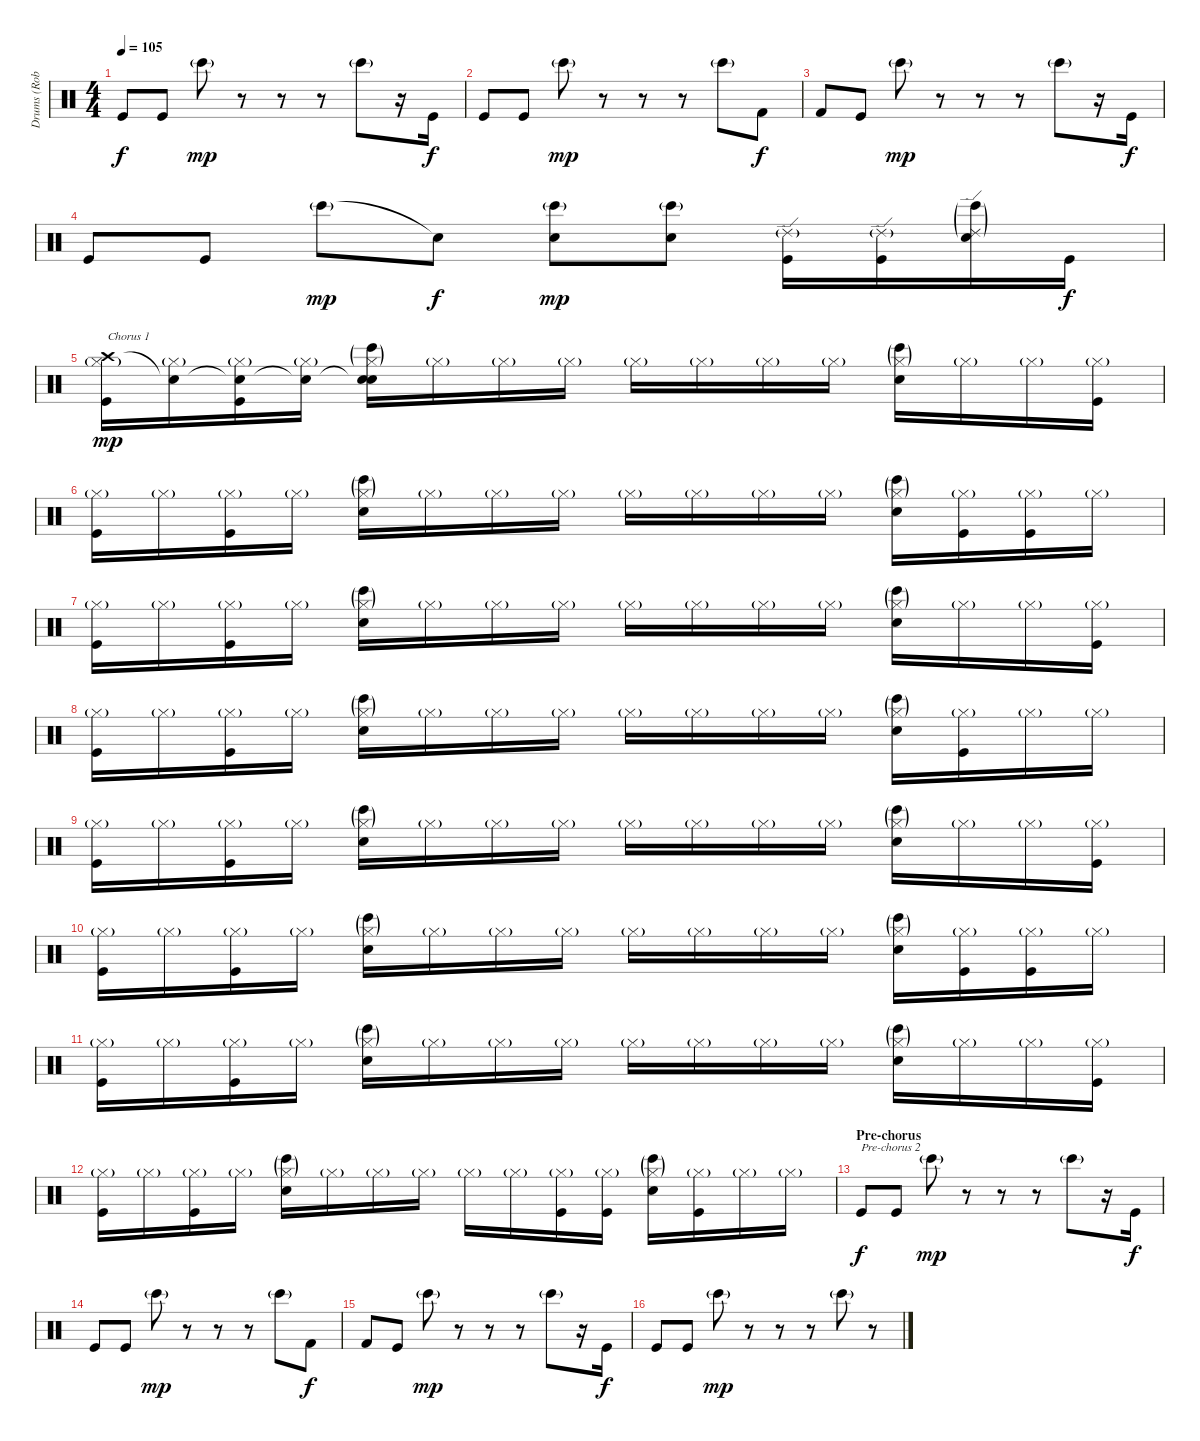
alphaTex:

\track ("Drums (Rob Bourdon)" "Drums (Rob") {instrument percussion}
\staff {score}
\articulation defaults
\ts (4 4)
\tempo 105
\clef neutral
\ks c "Kick (hit)".8{dy f} "Kick (hit)".8 "Bongo High (hit)"{g}.8{dy mp}
r.8 r.8 r.8 "Bongo High (hit)"{g}.8 r.16 "Kick (hit)".16{dy f} |
"Kick (hit)".8 "Kick (hit)".8 "Bongo High (hit)"{g}.8{dy mp} r.8 r.8 r.8 "Bongo High (hit)"{g}.8 "Kick (hit) 2".8{dy f} |
"Kick (hit) 2".8 "Kick (hit)".8 "Bongo High (hit)"{g}.8{dy mp} r.8 r.8 r.8 "Bongo High (hit)"{g}.8 r.16 "Kick (hit)".16{dy f} |
"Kick (hit)".8 "Kick (hit)".8 "Bongo High (hit)"{g}.8{dy mp} "Snare (hit)"{t}.8{dy f} ("Bongo High (hit)"{g} "Electric Snare (hit)").8{dy mp} ("Bongo High (hit)"{g} "Electric Snare (hit)").8 ("Ride (edge) 2"{g} "Kick (hit)").16 ("Ride (edge) 2"{g} "Kick (hit)").16 ("Ride (edge) 2"{g} "Bongo High (hit)"{g} "Electric Snare (hit)").16 "Kick (hit)".16{dy f} |
("Crash high (hit)" "Hi-Hat (closed)"{g} "Kick (hit)").16{txt "Chorus 1" dy mp} ("Snare (hit)"{t} "Hi-Hat (closed)"{g}).16 ("Snare (hit)"{t} "Hi-Hat (closed)"{g} "Kick (hit)").16 ("Snare (hit)"{t} "Hi-Hat (closed)"{g}).16 ("Snare (hit)"{t} "Hi-Hat (closed)"{g} "Bongo High (hit)"{g} "Electric Snare (hit)").16 "Hi-Hat (closed)"{g}.16 "Hi-Hat (closed)"{g}.16 "Hi-Hat (closed)"{g}.16 "Hi-Hat (closed)"{g}.16 "Hi-Hat (closed)"{g}.16 "Hi-Hat (closed)"{g}.16 "Hi-Hat (closed)"{g}.16 ("Hi-Hat (closed)"{g} "Bongo High (hit)"{g} "Electric Snare (hit)").16 "Hi-Hat (closed)"{g}.16 "Hi-Hat (closed)"{g}.16 ("Hi-Hat (closed)"{g} "Kick (hit)").16 |
("Hi-Hat (closed)"{g} "Kick (hit)").16 "Hi-Hat (closed)"{g}.16 ("Hi-Hat (closed)"{g} "Kick (hit)").16 "Hi-Hat (closed)"{g}.16 ("Hi-Hat (closed)"{g} "Bongo High (hit)"{g} "Electric Snare (hit)").16 "Hi-Hat (closed)"{g}.16 "Hi-Hat (closed)"{g}.16 "Hi-Hat (closed)"{g}.16 "Hi-Hat (closed)"{g}.16 "Hi-Hat (closed)"{g}.16 "Hi-Hat (closed)"{g}.16 "Hi-Hat (closed)"{g}.16 ("Hi-Hat (closed)"{g} "Bongo High (hit)"{g} "Electric Snare (hit)").16 ("Hi-Hat (closed)"{g} "Kick (hit)").16 ("Hi-Hat (closed)"{g} "Kick (hit)").16 "Hi-Hat (closed)"{g}.16 |
("Hi-Hat (closed)"{g} "Kick (hit)").16 "Hi-Hat (closed)"{g}.16 ("Hi-Hat (closed)"{g} "Kick (hit)").16 "Hi-Hat (closed)"{g}.16 ("Hi-Hat (closed)"{g} "Bongo High (hit)"{g} "Electric Snare (hit)").16 "Hi-Hat (closed)"{g}.16 "Hi-Hat (closed)"{g}.16 "Hi-Hat (closed)"{g}.16 "Hi-Hat (closed)"{g}.16 "Hi-Hat (closed)"{g}.16 "Hi-Hat (closed)"{g}.16 "Hi-Hat (closed)"{g}.16 ("Hi-Hat (closed)"{g} "Bongo High (hit)"{g} "Electric Snare (hit)").16 "Hi-Hat (closed)"{g}.16 "Hi-Hat (closed)"{g}.16 ("Hi-Hat (closed)"{g} "Kick (hit)").16 |
("Hi-Hat (closed)"{g} "Kick (hit)").16 "Hi-Hat (closed)"{g}.16 ("Hi-Hat (closed)"{g} "Kick (hit)").16 "Hi-Hat (closed)"{g}.16 ("Hi-Hat (closed)"{g} "Bongo High (hit)"{g} "Electric Snare (hit)").16 "Hi-Hat (closed)"{g}.16 "Hi-Hat (closed)"{g}.16 "Hi-Hat (closed)"{g}.16 "Hi-Hat (closed)"{g}.16 "Hi-Hat (closed)"{g}.16 "Hi-Hat (closed)"{g}.16 "Hi-Hat (closed)"{g}.16 ("Hi-Hat (closed)"{g} "Bongo High (hit)"{g} "Electric Snare (hit)").16 ("Hi-Hat (closed)"{g} "Kick (hit)").16 "Hi-Hat (closed)"{g}.16 "Hi-Hat (closed)"{g}.16 |
("Hi-Hat (closed)"{g} "Kick (hit)").16 "Hi-Hat (closed)"{g}.16 ("Hi-Hat (closed)"{g} "Kick (hit)").16 "Hi-Hat (closed)"{g}.16 ("Hi-Hat (closed)"{g} "Bongo High (hit)"{g} "Electric Snare (hit)").16 "Hi-Hat (closed)"{g}.16 "Hi-Hat (closed)"{g}.16 "Hi-Hat (closed)"{g}.16 "Hi-Hat (closed)"{g}.16 "Hi-Hat (closed)"{g}.16 "Hi-Hat (closed)"{g}.16 "Hi-Hat (closed)"{g}.16 ("Hi-Hat (closed)"{g} "Bongo High (hit)"{g} "Electric Snare (hit)").16 "Hi-Hat (closed)"{g}.16 "Hi-Hat (closed)"{g}.16 ("Hi-Hat (closed)"{g} "Kick (hit)").16 |
("Hi-Hat (closed)"{g} "Kick (hit)").16 "Hi-Hat (closed)"{g}.16 ("Hi-Hat (closed)"{g} "Kick (hit)").16 "Hi-Hat (closed)"{g}.16 ("Hi-Hat (closed)"{g} "Bongo High (hit)"{g} "Electric Snare (hit)").16 "Hi-Hat (closed)"{g}.16 "Hi-Hat (closed)"{g}.16 "Hi-Hat (closed)"{g}.16 "Hi-Hat (closed)"{g}.16 "Hi-Hat (closed)"{g}.16 "Hi-Hat (closed)"{g}.16 "Hi-Hat (closed)"{g}.16 ("Hi-Hat (closed)"{g} "Bongo High (hit)"{g} "Electric Snare (hit)").16 ("Hi-Hat (closed)"{g} "Kick (hit)").16 ("Hi-Hat (closed)"{g} "Kick (hit)").16 "Hi-Hat (closed)"{g}.16 |
("Hi-Hat (closed)"{g} "Kick (hit)").16 "Hi-Hat (closed)"{g}.16 ("Hi-Hat (closed)"{g} "Kick (hit)").16 "Hi-Hat (closed)"{g}.16 ("Hi-Hat (closed)"{g} "Bongo High (hit)"{g} "Electric Snare (hit)").16 "Hi-Hat (closed)"{g}.16 "Hi-Hat (closed)"{g}.16 "Hi-Hat (closed)"{g}.16 "Hi-Hat (closed)"{g}.16 "Hi-Hat (closed)"{g}.16 "Hi-Hat (closed)"{g}.16 "Hi-Hat (closed)"{g}.16 ("Hi-Hat (closed)"{g} "Bongo High (hit)"{g} "Electric Snare (hit)").16 "Hi-Hat (closed)"{g}.16 "Hi-Hat (closed)"{g}.16 ("Hi-Hat (closed)"{g} "Kick (hit)").16 |
("Hi-Hat (closed)"{g} "Kick (hit)").16 "Hi-Hat (closed)"{g}.16 ("Hi-Hat (closed)"{g} "Kick (hit)").16 "Hi-Hat (closed)"{g}.16 ("Hi-Hat (closed)"{g} "Bongo High (hit)"{g} "Electric Snare (hit)").16 "Hi-Hat (closed)"{g}.16 "Hi-Hat (closed)"{g}.16 "Hi-Hat (closed)"{g}.16 "Hi-Hat (closed)"{g}.16 "Hi-Hat (closed)"{g}.16 ("Hi-Hat (closed)"{g} "Kick (hit)").16 ("Hi-Hat (closed)"{g} "Kick (hit)").16 ("Hi-Hat (closed)"{g} "Bongo High (hit)"{g} "Electric Snare (hit)").16 ("Hi-Hat (closed)"{g} "Kick (hit)").16 "Hi-Hat (closed)"{g}.16 "Hi-Hat (closed)"{g}.16 |
\section ("" "Pre-chorus")
"Kick (hit)".8{txt "Pre-chorus 2" dy f} "Kick (hit)".8 "Bongo High (hit)"{g}.8{dy mp} r.8 r.8 r.8 "Bongo High (hit)"{g}.8 r.16 "Kick (hit)".16{dy f} |
"Kick (hit)".8 "Kick (hit)".8 "Bongo High (hit)"{g}.8{dy mp} r.8 r.8 r.8 "Bongo High (hit)"{g}.8 "Kick (hit) 2".8{dy f} |
"Kick (hit) 2".8 "Kick (hit)".8 "Bongo High (hit)"{g}.8{dy mp} r.8 r.8 r.8 "Bongo High (hit)"{g}.8 r.16 "Kick (hit)".16{dy f} |
"Kick (hit)".8 "Kick (hit)".8 "Bongo High (hit)"{g}.8{dy mp} r.8 r.8 r.8 "Bongo High (hit)"{g}.8 r.8
